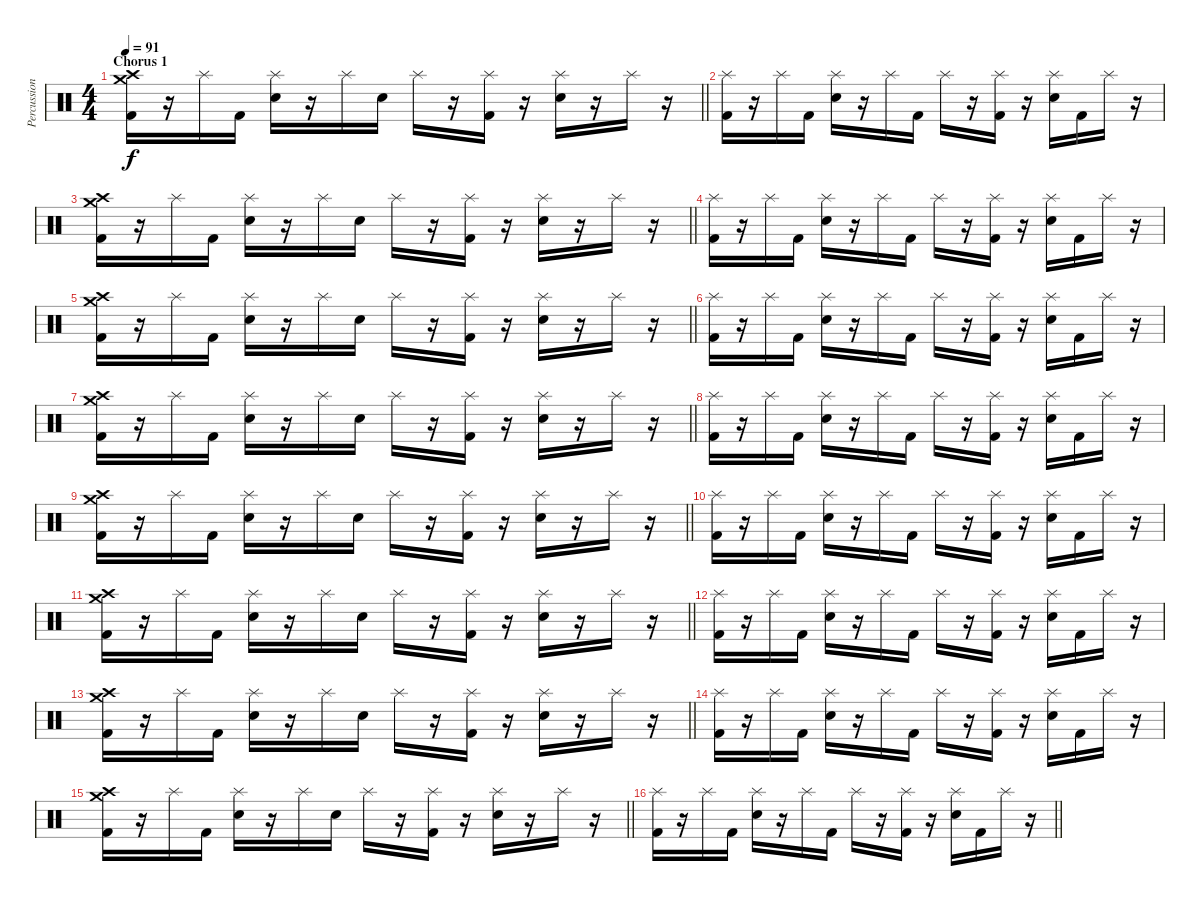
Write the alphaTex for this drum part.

\track ("Percussion" "Percussion") {instrument percussion}
\staff {score}
\articulation defaults
\ts (4 4)
\section ("" "Chorus 1")
\tempo 91
\clef neutral
\barLineRight lightlight
\ks c
("Crash high (hit)" "Crash medium (hit)" "Kick (hit) 2").16{dy f} r.16 "Splash (hit)".16 "Kick (hit) 2".16 ("Splash (hit)" "Electric Snare (hit)").16 r.16 "Splash (hit)".16 "Electric Snare (hit)".16 "Splash (hit)".16 r.16 ("Splash (hit)" "Kick (hit) 2").16 r.16 ("Splash (hit)" "Electric Snare (hit)").16 r.16 "Splash (hit)".16 r.16 |
\section ("" "")
("Splash (hit)" "Kick (hit) 2").16 r.16 "Splash (hit)".16 "Kick (hit) 2".16 ("Splash (hit)" "Electric Snare (hit)").16 r.16 "Splash (hit)".16 "Kick (hit) 2".16 "Splash (hit)".16 r.16 ("Splash (hit)" "Kick (hit) 2").16 r.16 ("Splash (hit)" "Electric Snare (hit)").16 "Kick (hit) 2".16 "Splash (hit)".16 r.16 |
\barLineRight lightlight
("Crash high (hit)" "Crash medium (hit)" "Kick (hit) 2").16 r.16 "Splash (hit)".16 "Kick (hit) 2".16 ("Splash (hit)" "Electric Snare (hit)").16 r.16 "Splash (hit)".16 "Electric Snare (hit)".16 "Splash (hit)".16 r.16 ("Splash (hit)" "Kick (hit) 2").16 r.16 ("Splash (hit)" "Electric Snare (hit)").16 r.16 "Splash (hit)".16 r.16 |
("Splash (hit)" "Kick (hit) 2").16 r.16 "Splash (hit)".16 "Kick (hit) 2".16 ("Splash (hit)" "Electric Snare (hit)").16 r.16 "Splash (hit)".16 "Kick (hit) 2".16 "Splash (hit)".16 r.16 ("Splash (hit)" "Kick (hit) 2").16 r.16 ("Splash (hit)" "Electric Snare (hit)").16 "Kick (hit) 2".16 "Splash (hit)".16 r.16 |
\barLineRight lightlight
("Crash high (hit)" "Crash medium (hit)" "Kick (hit) 2").16 r.16 "Splash (hit)".16 "Kick (hit) 2".16 ("Splash (hit)" "Electric Snare (hit)").16 r.16 "Splash (hit)".16 "Electric Snare (hit)".16 "Splash (hit)".16 r.16 ("Splash (hit)" "Kick (hit) 2").16 r.16 ("Splash (hit)" "Electric Snare (hit)").16 r.16 "Splash (hit)".16 r.16 |
("Splash (hit)" "Kick (hit) 2").16 r.16 "Splash (hit)".16 "Kick (hit) 2".16 ("Splash (hit)" "Electric Snare (hit)").16 r.16 "Splash (hit)".16 "Kick (hit) 2".16 "Splash (hit)".16 r.16 ("Splash (hit)" "Kick (hit) 2").16 r.16 ("Splash (hit)" "Electric Snare (hit)").16 "Kick (hit) 2".16 "Splash (hit)".16 r.16 |
\barLineRight lightlight
("Crash high (hit)" "Crash medium (hit)" "Kick (hit) 2").16 r.16 "Splash (hit)".16 "Kick (hit) 2".16 ("Splash (hit)" "Electric Snare (hit)").16 r.16 "Splash (hit)".16 "Electric Snare (hit)".16 "Splash (hit)".16 r.16 ("Splash (hit)" "Kick (hit) 2").16 r.16 ("Splash (hit)" "Electric Snare (hit)").16 r.16 "Splash (hit)".16 r.16 |
("Splash (hit)" "Kick (hit) 2").16 r.16 "Splash (hit)".16 "Kick (hit) 2".16 ("Splash (hit)" "Electric Snare (hit)").16 r.16 "Splash (hit)".16 "Kick (hit) 2".16 "Splash (hit)".16 r.16 ("Splash (hit)" "Kick (hit) 2").16 r.16 ("Splash (hit)" "Electric Snare (hit)").16 "Kick (hit) 2".16 "Splash (hit)".16 r.16 |
\barLineRight lightlight
("Crash high (hit)" "Crash medium (hit)" "Kick (hit) 2").16 r.16 "Splash (hit)".16 "Kick (hit) 2".16 ("Splash (hit)" "Electric Snare (hit)").16 r.16 "Splash (hit)".16 "Electric Snare (hit)".16 "Splash (hit)".16 r.16 ("Splash (hit)" "Kick (hit) 2").16 r.16 ("Splash (hit)" "Electric Snare (hit)").16 r.16 "Splash (hit)".16 r.16 |
("Splash (hit)" "Kick (hit) 2").16 r.16 "Splash (hit)".16 "Kick (hit) 2".16 ("Splash (hit)" "Electric Snare (hit)").16 r.16 "Splash (hit)".16 "Kick (hit) 2".16 "Splash (hit)".16 r.16 ("Splash (hit)" "Kick (hit) 2").16 r.16 ("Splash (hit)" "Electric Snare (hit)").16 "Kick (hit) 2".16 "Splash (hit)".16 r.16 |
\barLineRight lightlight
("Crash high (hit)" "Crash medium (hit)" "Kick (hit) 2").16 r.16 "Splash (hit)".16 "Kick (hit) 2".16 ("Splash (hit)" "Electric Snare (hit)").16 r.16 "Splash (hit)".16 "Electric Snare (hit)".16 "Splash (hit)".16 r.16 ("Splash (hit)" "Kick (hit) 2").16 r.16 ("Splash (hit)" "Electric Snare (hit)").16 r.16 "Splash (hit)".16 r.16 |
("Splash (hit)" "Kick (hit) 2").16 r.16 "Splash (hit)".16 "Kick (hit) 2".16 ("Splash (hit)" "Electric Snare (hit)").16 r.16 "Splash (hit)".16 "Kick (hit) 2".16 "Splash (hit)".16 r.16 ("Splash (hit)" "Kick (hit) 2").16 r.16 ("Splash (hit)" "Electric Snare (hit)").16 "Kick (hit) 2".16 "Splash (hit)".16 r.16 |
\barLineRight lightlight
("Crash high (hit)" "Crash medium (hit)" "Kick (hit) 2").16 r.16 "Splash (hit)".16 "Kick (hit) 2".16 ("Splash (hit)" "Electric Snare (hit)").16 r.16 "Splash (hit)".16 "Electric Snare (hit)".16 "Splash (hit)".16 r.16 ("Splash (hit)" "Kick (hit) 2").16 r.16 ("Splash (hit)" "Electric Snare (hit)").16 r.16 "Splash (hit)".16 r.16 |
("Splash (hit)" "Kick (hit) 2").16 r.16 "Splash (hit)".16 "Kick (hit) 2".16 ("Splash (hit)" "Electric Snare (hit)").16 r.16 "Splash (hit)".16 "Kick (hit) 2".16 "Splash (hit)".16 r.16 ("Splash (hit)" "Kick (hit) 2").16 r.16 ("Splash (hit)" "Electric Snare (hit)").16 "Kick (hit) 2".16 "Splash (hit)".16 r.16 |
\barLineRight lightlight
("Crash high (hit)" "Crash medium (hit)" "Kick (hit) 2").16 r.16 "Splash (hit)".16 "Kick (hit) 2".16 ("Splash (hit)" "Electric Snare (hit)").16 r.16 "Splash (hit)".16 "Electric Snare (hit)".16 "Splash (hit)".16 r.16 ("Splash (hit)" "Kick (hit) 2").16 r.16 ("Splash (hit)" "Electric Snare (hit)").16 r.16 "Splash (hit)".16 r.16 |
\barLineRight lightlight
("Splash (hit)" "Kick (hit) 2").16 r.16 "Splash (hit)".16 "Kick (hit) 2".16 ("Splash (hit)" "Electric Snare (hit)").16 r.16 "Splash (hit)".16 "Kick (hit) 2".16 "Splash (hit)".16 r.16 ("Splash (hit)" "Kick (hit) 2").16 r.16 ("Splash (hit)" "Electric Snare (hit)").16 "Kick (hit) 2".16 "Splash (hit)".16 r.16
